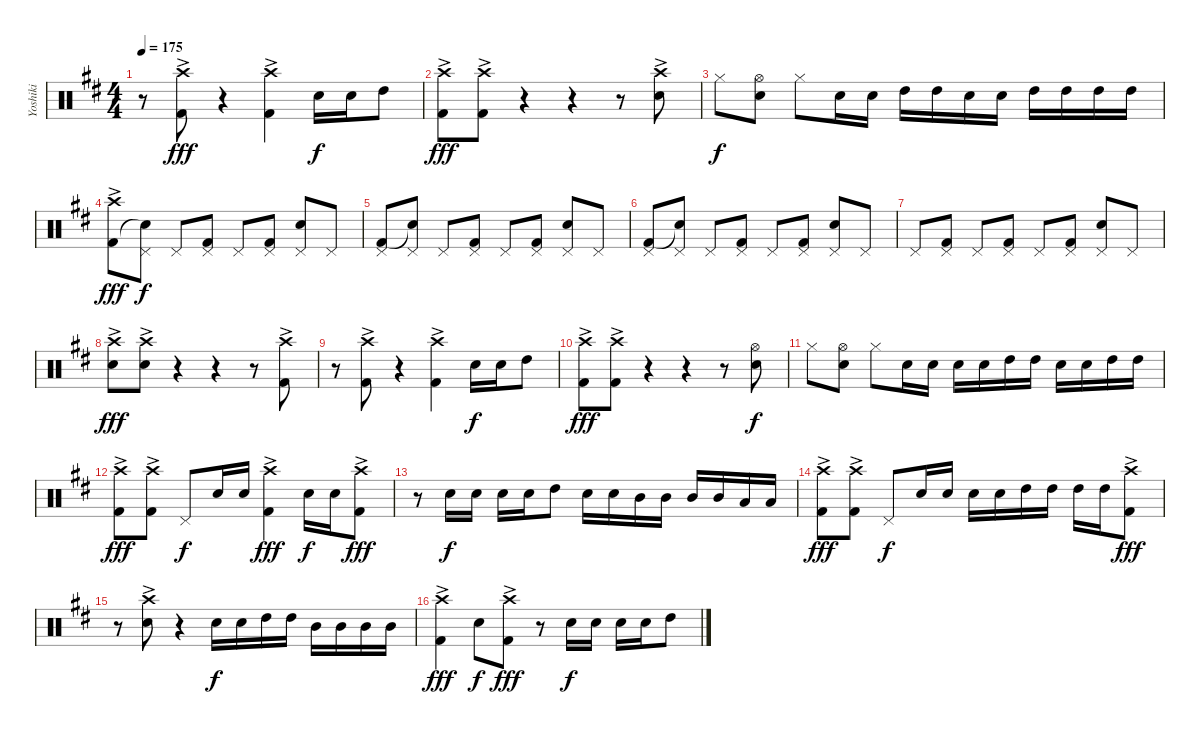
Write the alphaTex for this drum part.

\track ("Yoshiki" "Yoshiki") {instrument percussion}
\staff {score}
\articulation defaults
\ts (4 4)
\tempo 175
\clef neutral
\ks d
r.8{dy fff} ("Crash high (hit)"{ac} "Kick (hit) 2"{ac}).8 r.4 ("Crash high (hit)"{ac} "Kick (hit) 2"{ac}).4 "Snare (hit) 2".16{dy f} "Snare (hit) 2".16 "High Tom (hit)".8 |
("Crash high (hit)"{ac} "Kick (hit) 2"{ac}).8{dy fff} ("Crash high (hit)"{ac} "Kick (hit) 2"{ac}).8 r.4 r.4 r.8 ("Crash high (hit)"{ac} "Snare (hit) 2"{ac}).8 |
"Hi-Hat (closed)".8{dy f} ("Hi-Hat (open)" "Snare (hit) 2").8 "Hi-Hat (closed)".8 "Snare (hit) 2".16 "Snare (hit) 2".16 "High Tom (hit)".16 "High Tom (hit)".16 "Snare (hit) 2".16 "Snare (hit) 2".16 "High Tom (hit)".16 "High Tom (hit)".16 "High Tom (hit)".16 "High Tom (hit)".16 |
("Crash high (hit)"{ac} "Kick (hit) 2"{ac}).8{dy fff} ("Pedal Hi-Hat (hit)" "Snare (hit)"{t}).8{dy f} "Pedal Hi-Hat (hit)".8 ("Pedal Hi-Hat (hit)" "Kick (hit) 2").8 "Pedal Hi-Hat (hit)".8 ("Pedal Hi-Hat (hit)" "Kick (hit) 2").8 ("Pedal Hi-Hat (hit)" "Snare (hit) 2").8 "Pedal Hi-Hat (hit)".8 |
("Pedal Hi-Hat (hit)" "Kick (hit) 2").8 ("Pedal Hi-Hat (hit)" "Snare (hit)"{t}).8 "Pedal Hi-Hat (hit)".8 ("Pedal Hi-Hat (hit)" "Kick (hit) 2").8 "Pedal Hi-Hat (hit)".8 ("Pedal Hi-Hat (hit)" "Kick (hit) 2").8 ("Pedal Hi-Hat (hit)" "Snare (hit) 2").8 "Pedal Hi-Hat (hit)".8 |
("Pedal Hi-Hat (hit)" "Kick (hit) 2").8 ("Pedal Hi-Hat (hit)" "Snare (hit)"{t}).8 "Pedal Hi-Hat (hit)".8 ("Pedal Hi-Hat (hit)" "Kick (hit) 2").8 "Pedal Hi-Hat (hit)".8 ("Pedal Hi-Hat (hit)" "Kick (hit) 2").8 ("Pedal Hi-Hat (hit)" "Snare (hit) 2").8 "Pedal Hi-Hat (hit)".8 |
"Pedal Hi-Hat (hit)".8 ("Pedal Hi-Hat (hit)" "Kick (hit) 2").8 "Pedal Hi-Hat (hit)".8 ("Pedal Hi-Hat (hit)" "Kick (hit) 2").8 "Pedal Hi-Hat (hit)".8 ("Pedal Hi-Hat (hit)" "Kick (hit) 2").8 ("Pedal Hi-Hat (hit)" "Snare (hit) 2").8 "Pedal Hi-Hat (hit)".8 |
("Crash high (hit)"{ac} "Snare (hit) 2"{ac}).8{dy fff} ("Crash high (hit)"{ac} "Snare (hit) 2"{ac}).8 r.4 r.4 r.8 ("Crash high (hit)"{ac} "Kick (hit) 2"{ac}).8 |
r.8 ("Crash high (hit)"{ac} "Kick (hit) 2"{ac}).8 r.4 ("Crash high (hit)"{ac} "Kick (hit) 2"{ac}).4 "Snare (hit) 2".16{dy f} "Snare (hit) 2".16 "High Tom (hit)".8 |
("Crash high (hit)"{ac} "Kick (hit) 2"{ac}).8{dy fff} ("Crash high (hit)"{ac} "Kick (hit) 2"{ac}).8 r.4 r.4 r.8 ("Hi-Hat (open)" "Snare (hit) 2").8{dy f} |
"Hi-Hat (closed)".8 ("Hi-Hat (open)" "Snare (hit) 2").8 "Hi-Hat (closed)".8 "Snare (hit) 2".16 "Snare (hit) 2".16 "Snare (hit) 2".16 "Snare (hit) 2".16 "High Tom (hit)".16 "High Tom (hit)".16 "Snare (hit) 2".16 "Snare (hit) 2".16 "High Tom (hit)".16 "High Tom (hit)".16 |
("Crash high (hit)"{ac} "Kick (hit) 2"{ac}).8{dy fff} ("Crash high (hit)"{ac} "Kick (hit) 2"{ac}).8 "Pedal Hi-Hat (hit)".8{dy f} "Snare (hit) 2".16 "Snare (hit) 2".16 ("Crash high (hit)"{ac} "Kick (hit) 2"{ac}).4{dy fff} "Snare (hit) 2".16{dy f} "Snare (hit) 2".16 ("Crash high (hit)"{ac} "Kick (hit) 2"{ac}).8{dy fff} |
r.8 "Snare (hit) 2".16{dy f} "Snare (hit) 2".16 "Snare (hit) 2".16 "Snare (hit) 2".16 "High Tom (hit)".8 "Snare (hit) 2".16 "Snare (hit) 2".16 "Mid Tom (hit)".16 "Mid Tom (hit)".16 "Mid Tom (hit)".16 "Mid Tom (hit)".16 "Low Tom (hit)".16 "Low Tom (hit)".16 |
("Crash high (hit)"{ac} "Kick (hit) 2"{ac}).8{dy fff} ("Crash high (hit)"{ac} "Kick (hit) 2"{ac}).8 "Pedal Hi-Hat (hit)".8{dy f} "Snare (hit) 2".16 "Snare (hit) 2".16 "Snare (hit) 2".16 "Snare (hit) 2".16 "High Tom (hit)".16 "High Tom (hit)".16 "High Tom (hit)".16 "High Tom (hit)".16 ("Crash high (hit)"{ac} "Kick (hit) 2"{ac}).8{dy fff} |
r.8 ("Crash high (hit)"{ac} "Snare (hit) 2"{ac}).8 r.4 "Snare (hit) 2".16{dy f} "Snare (hit) 2".16 "High Tom (hit)".16 "High Tom (hit)".16 "Mid Tom (hit)".16 "Mid Tom (hit)".16 "Mid Tom (hit)".16 "Mid Tom (hit)".16 |
("Crash high (hit)"{ac} "Kick (hit) 2"{ac}).4{dy fff} "Snare (hit) 2".8{dy f} ("Crash high (hit)"{ac} "Kick (hit) 2"{ac}).8{dy fff} r.8 "Snare (hit) 2".16{dy f} "Snare (hit) 2".16 "Snare (hit) 2".16 "Snare (hit) 2".16 "High Tom (hit)".8
